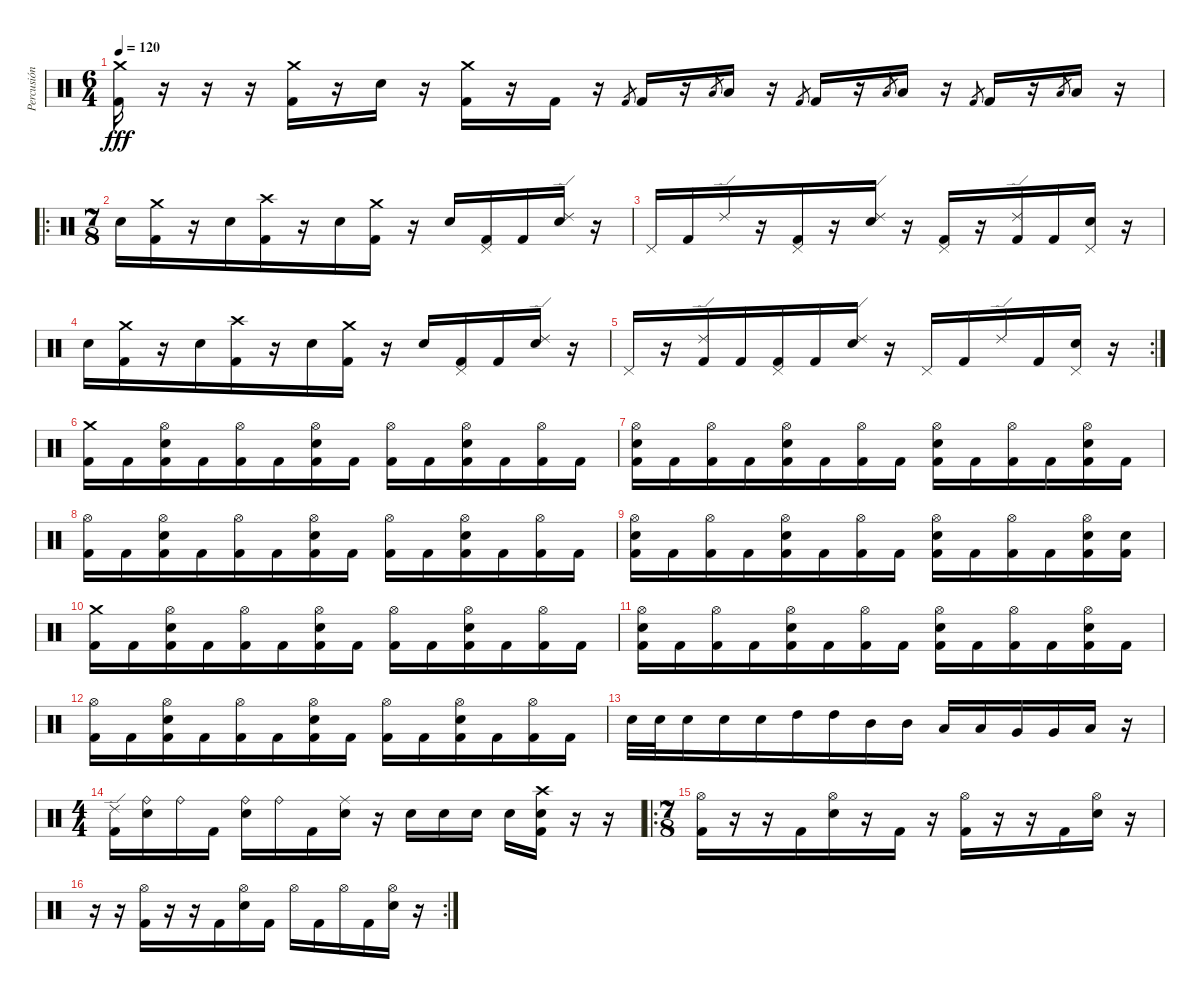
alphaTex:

\track ("Percusión" "Percusión") {instrument percussion}
\staff {score}
\articulation defaults
\ts (6 4)
\tempo 120
\clef neutral
\ks c
("Crash medium (hit)" "Kick (hit) 2").16{dy fff} r.16 r.16 r.16 ("Crash medium (hit)" "Kick (hit) 2").16 r.16 "Electric Snare (hit)".16 r.16 ("Crash medium (hit)" "Kick (hit) 2").16 r.16 "Kick (hit) 2".16 r.16 "Kick (hit) 2".8{gr} "Kick (hit) 2".16 r.16 "Low Tom (hit)".8{gr} "Low Tom (hit)".16 r.16 "Kick (hit) 2".8{gr} "Kick (hit) 2".16 r.16 "Low Tom (hit)".8{gr} "Low Tom (hit)".16 r.16 "Kick (hit) 2".8{gr} "Kick (hit) 2".16 r.16 "Low Tom (hit)".8{gr} "Low Tom (hit)".16 r.16 |
\ro
\ts (7 8)
"Electric Snare (hit)".16 ("Crash medium (hit)" "Kick (hit) 2").16 r.16 "Electric Snare (hit)".16 ("Crash high (hit)" "Kick (hit) 2").16 r.16 "Electric Snare (hit)".16 ("Crash medium (hit)" "Kick (hit) 2").16 r.16 "Electric Snare (hit)".16 ("Pedal Hi-Hat (hit)" "Kick (hit) 2").16 "Kick (hit) 2".16 ("Ride (edge) 2" "Electric Snare (hit)").16 r.16 |
"Pedal Hi-Hat (hit)".16 "Kick (hit) 2".16 "Ride (edge) 2".16 r.16 ("Pedal Hi-Hat (hit)" "Kick (hit) 2").16 r.16 ("Ride (edge) 2" "Electric Snare (hit)").16 r.16 ("Pedal Hi-Hat (hit)" "Kick (hit) 2").16 r.16 ("Ride (edge) 2" "Kick (hit) 2").16 "Kick (hit) 2".16 ("Pedal Hi-Hat (hit)" "Electric Snare (hit)").16 r.16 |
"Electric Snare (hit)".16 ("Crash medium (hit)" "Kick (hit) 2").16 r.16 "Electric Snare (hit)".16 ("Crash high (hit)" "Kick (hit) 2").16 r.16 "Electric Snare (hit)".16 ("Crash medium (hit)" "Kick (hit) 2").16 r.16 "Electric Snare (hit)".16 ("Pedal Hi-Hat (hit)" "Kick (hit) 2").16 "Kick (hit) 2".16 ("Ride (edge) 2" "Electric Snare (hit)").16 r.16 |
\rc 2 "Pedal Hi-Hat (hit)".16
r.16 ("Ride (edge) 2" "Kick (hit) 2").16 "Kick (hit) 2".16 ("Pedal Hi-Hat (hit)" "Kick (hit) 2").16 "Kick (hit) 2".16 ("Ride (edge) 2" "Electric Snare (hit)").16 r.16 "Pedal Hi-Hat (hit)".16 "Kick (hit) 2".16 "Ride (edge) 2".16 "Kick (hit) 2".16 ("Pedal Hi-Hat (hit)" "Electric Snare (hit)").16 r.16 |
("Crash medium (hit)" "Kick (hit) 2").16 "Kick (hit) 2".16 ("Hi-Hat (open)" "Electric Snare (hit)" "Kick (hit) 2").16 "Kick (hit) 2".16 ("Hi-Hat (open)" "Kick (hit) 2").16 "Kick (hit) 2".16 ("Hi-Hat (open)" "Electric Snare (hit)" "Kick (hit) 2").16 "Kick (hit) 2".16 ("Hi-Hat (open)" "Kick (hit) 2").16 "Kick (hit) 2".16 ("Hi-Hat (open)" "Electric Snare (hit)" "Kick (hit) 2").16 "Kick (hit) 2".16 ("Hi-Hat (open)" "Kick (hit) 2").16 "Kick (hit) 2".16 |
("Hi-Hat (open)" "Electric Snare (hit)" "Kick (hit) 2").16 "Kick (hit) 2".16 ("Hi-Hat (open)" "Kick (hit) 2").16 "Kick (hit) 2".16 ("Hi-Hat (open)" "Electric Snare (hit)" "Kick (hit) 2").16 "Kick (hit) 2".16 ("Hi-Hat (open)" "Kick (hit) 2").16 "Kick (hit) 2".16 ("Hi-Hat (open)" "Electric Snare (hit)" "Kick (hit) 2").16 "Kick (hit) 2".16 ("Hi-Hat (open)" "Kick (hit) 2").16 "Kick (hit) 2".16 ("Hi-Hat (open)" "Electric Snare (hit)" "Kick (hit) 2").16 "Kick (hit) 2".16 |
("Hi-Hat (open)" "Kick (hit) 2").16 "Kick (hit) 2".16 ("Hi-Hat (open)" "Electric Snare (hit)" "Kick (hit) 2").16 "Kick (hit) 2".16 ("Hi-Hat (open)" "Kick (hit) 2").16 "Kick (hit) 2".16 ("Hi-Hat (open)" "Electric Snare (hit)" "Kick (hit) 2").16 "Kick (hit) 2".16 ("Hi-Hat (open)" "Kick (hit) 2").16 "Kick (hit) 2".16 ("Hi-Hat (open)" "Electric Snare (hit)" "Kick (hit) 2").16 "Kick (hit) 2".16 ("Hi-Hat (open)" "Kick (hit) 2").16 "Kick (hit) 2".16 |
("Hi-Hat (open)" "Electric Snare (hit)" "Kick (hit) 2").16 "Kick (hit) 2".16 ("Hi-Hat (open)" "Kick (hit) 2").16 "Kick (hit) 2".16 ("Hi-Hat (open)" "Electric Snare (hit)" "Kick (hit) 2").16 "Kick (hit) 2".16 ("Hi-Hat (open)" "Kick (hit) 2").16 "Kick (hit) 2".16 ("Hi-Hat (open)" "Electric Snare (hit)" "Kick (hit) 2").16 "Kick (hit) 2".16 ("Hi-Hat (open)" "Kick (hit) 2").16 "Kick (hit) 2".16 ("Hi-Hat (open)" "Electric Snare (hit)" "Kick (hit) 2").16 ("Electric Snare (hit)" "Kick (hit) 2").16 |
("Crash medium (hit)" "Kick (hit) 2").16 "Kick (hit) 2".16 ("Hi-Hat (open)" "Electric Snare (hit)" "Kick (hit) 2").16 "Kick (hit) 2".16 ("Hi-Hat (open)" "Kick (hit) 2").16 "Kick (hit) 2".16 ("Hi-Hat (open)" "Electric Snare (hit)" "Kick (hit) 2").16 "Kick (hit) 2".16 ("Hi-Hat (open)" "Kick (hit) 2").16 "Kick (hit) 2".16 ("Hi-Hat (open)" "Electric Snare (hit)" "Kick (hit) 2").16 "Kick (hit) 2".16 ("Hi-Hat (open)" "Kick (hit) 2").16 "Kick (hit) 2".16 |
("Hi-Hat (open)" "Electric Snare (hit)" "Kick (hit) 2").16 "Kick (hit) 2".16 ("Hi-Hat (open)" "Kick (hit) 2").16 "Kick (hit) 2".16 ("Hi-Hat (open)" "Electric Snare (hit)" "Kick (hit) 2").16 "Kick (hit) 2".16 ("Hi-Hat (open)" "Kick (hit) 2").16 "Kick (hit) 2".16 ("Hi-Hat (open)" "Electric Snare (hit)" "Kick (hit) 2").16 "Kick (hit) 2".16 ("Hi-Hat (open)" "Kick (hit) 2").16 "Kick (hit) 2".16 ("Hi-Hat (open)" "Electric Snare (hit)" "Kick (hit) 2").16 "Kick (hit) 2".16 |
("Hi-Hat (open)" "Kick (hit) 2").16 "Kick (hit) 2".16 ("Hi-Hat (open)" "Electric Snare (hit)" "Kick (hit) 2").16 "Kick (hit) 2".16 ("Hi-Hat (open)" "Kick (hit) 2").16 "Kick (hit) 2".16 ("Hi-Hat (open)" "Electric Snare (hit)" "Kick (hit) 2").16 "Kick (hit) 2".16 ("Hi-Hat (open)" "Kick (hit) 2").16 "Kick (hit) 2".16 ("Hi-Hat (open)" "Electric Snare (hit)" "Kick (hit) 2").16 "Kick (hit) 2".16 ("Hi-Hat (open)" "Kick (hit) 2").16 "Kick (hit) 2".16 |
"Electric Snare (hit)".32 "Electric Snare (hit)".32 "Electric Snare (hit)".16 "Electric Snare (hit)".16 "Electric Snare (hit)".16 "High Tom (hit)".16 "High Tom (hit)".16 "Mid Tom (hit)".16 "Mid Tom (hit)".16 "Low Tom (hit)".16 "Low Tom (hit)".16 "Very Low Tom (hit)".16 "Very Low Tom (hit)".16 "Low Tom (hit)".16 r.16 |
\ts (4 4)
("Ride (edge) 2" "Kick (hit) 2").16 ("Ride (bell)" "Electric Snare (hit)").16 "Ride (bell)".16 "Kick (hit) 2".16 ("Ride (bell)" "Electric Snare (hit)").16 "Ride (bell)".16 "Kick (hit) 2".16 ("Ride (middle)" "Electric Snare (hit)").16 r.16 "Electric Snare (hit)".16 "Electric Snare (hit)".16 "Electric Snare (hit)".16 "Electric Snare (hit)".16 ("Crash high (hit)" "Electric Snare (hit)" "Kick (hit) 2").16 r.16 r.16 |
\ro
\ts (7 8)
("Hi-Hat (open)" "Kick (hit) 2").16 r.16 r.16 "Kick (hit) 2".16 ("Hi-Hat (open)" "Electric Snare (hit)").16 r.16 "Kick (hit) 2".16 r.16 ("Hi-Hat (open)" "Kick (hit) 2").16 r.16 r.16 "Kick (hit) 2".16 ("Hi-Hat (open)" "Electric Snare (hit)").16 r.16 |
\rc 2
r.16 r.16 ("Hi-Hat (open)" "Kick (hit) 2").16 r.16 r.16 "Kick (hit) 2".16 ("Hi-Hat (open)" "Electric Snare (hit)").16 "Kick (hit) 2".16 "Hi-Hat (open)".16 "Kick (hit) 2".16 "Hi-Hat (open)".16 "Kick (hit) 2".16 ("Hi-Hat (open)" "Electric Snare (hit)").16 r.16
